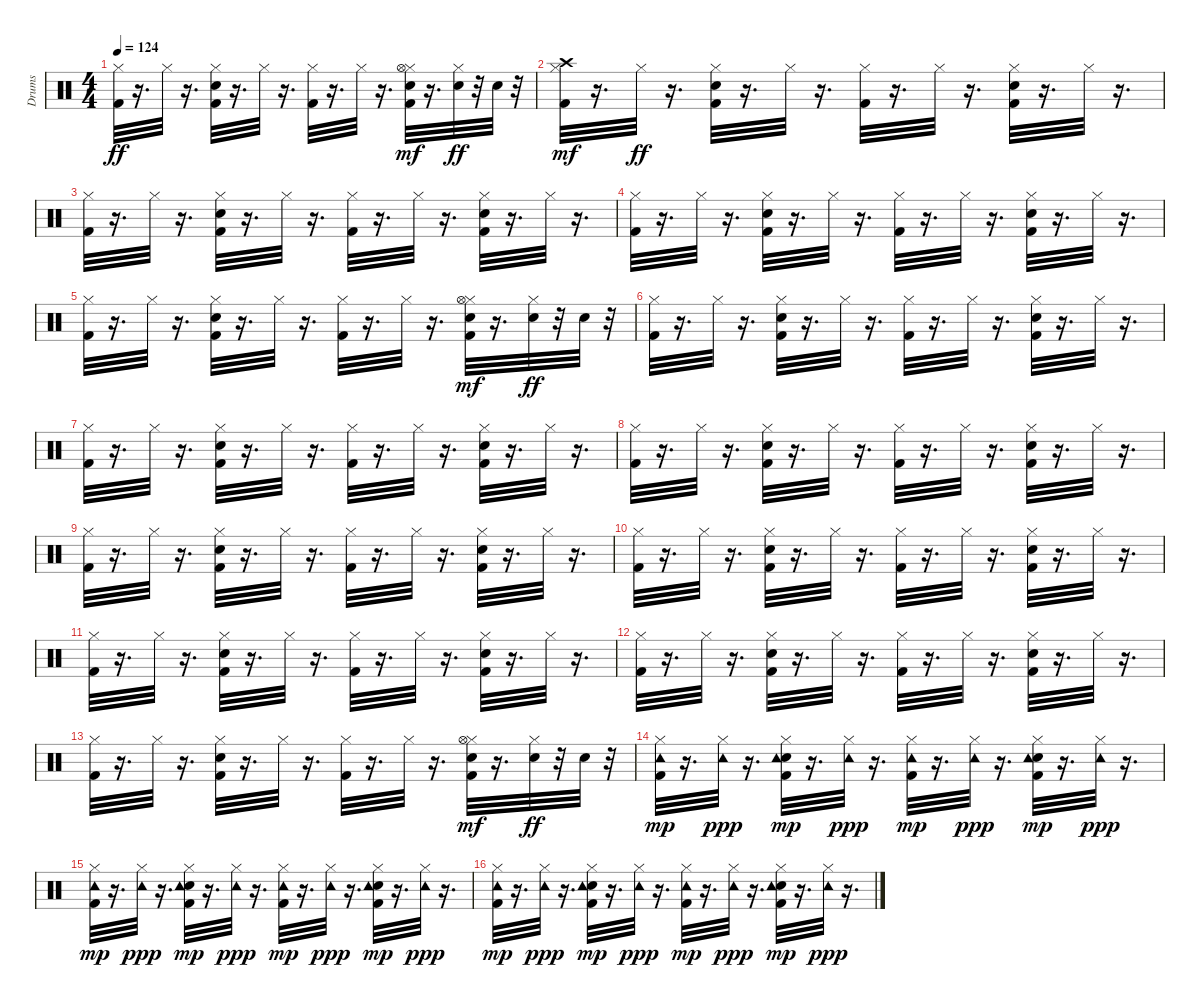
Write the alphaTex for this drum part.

\track ("Drums" "Drums") {instrument percussion}
\staff {score}
\articulation defaults
\ts (4 4)
\tempo 124
\clef neutral
\ks c
("Kick (hit) 2" "Hi-Hat (closed)").32{dy ff} r.16{d} "Hi-Hat (closed)".32 r.16{d} ("Kick (hit) 2" "Electric Snare (hit)" "Hi-Hat (closed)").32 r.16{d} "Hi-Hat (closed)".32 r.16{d} ("Kick (hit) 2" "Hi-Hat (closed)").32 r.16{d} "Hi-Hat (closed)".32 r.16{d} ("Kick (hit) 2" "Electric Snare (hit)" "Hi-Hat (closed)" "Hi-Hat (open)").32{dy mf} r.16{d} ("Electric Snare (hit)" "Hi-Hat (closed)").32{dy ff} r.32 "Electric Snare (hit)".32 r.32 |
("Kick (hit) 2" "Hi-Hat (closed)" "Crash high (hit)").32{dy mf} r.16{d} "Hi-Hat (closed)".32{dy ff} r.16{d} ("Kick (hit) 2" "Electric Snare (hit)" "Hi-Hat (closed)").32 r.16{d} "Hi-Hat (closed)".32 r.16{d} ("Kick (hit) 2" "Hi-Hat (closed)").32 r.16{d} "Hi-Hat (closed)".32 r.16{d} ("Kick (hit) 2" "Electric Snare (hit)" "Hi-Hat (closed)").32 r.16{d} "Hi-Hat (closed)".32 r.16{d} |
("Kick (hit) 2" "Hi-Hat (closed)").32 r.16{d} "Hi-Hat (closed)".32 r.16{d} ("Kick (hit) 2" "Electric Snare (hit)" "Hi-Hat (closed)").32 r.16{d} "Hi-Hat (closed)".32 r.16{d} ("Kick (hit) 2" "Hi-Hat (closed)").32 r.16{d} "Hi-Hat (closed)".32 r.16{d} ("Kick (hit) 2" "Electric Snare (hit)" "Hi-Hat (closed)").32 r.16{d} "Hi-Hat (closed)".32 r.16{d} |
("Kick (hit) 2" "Hi-Hat (closed)").32 r.16{d} "Hi-Hat (closed)".32 r.16{d} ("Kick (hit) 2" "Electric Snare (hit)" "Hi-Hat (closed)").32 r.16{d} "Hi-Hat (closed)".32 r.16{d} ("Kick (hit) 2" "Hi-Hat (closed)").32 r.16{d} "Hi-Hat (closed)".32 r.16{d} ("Kick (hit) 2" "Electric Snare (hit)" "Hi-Hat (closed)").32 r.16{d} "Hi-Hat (closed)".32 r.16{d} |
("Kick (hit) 2" "Hi-Hat (closed)").32 r.16{d} "Hi-Hat (closed)".32 r.16{d} ("Kick (hit) 2" "Electric Snare (hit)" "Hi-Hat (closed)").32 r.16{d} "Hi-Hat (closed)".32 r.16{d} ("Kick (hit) 2" "Hi-Hat (closed)").32 r.16{d} "Hi-Hat (closed)".32 r.16{d} ("Kick (hit) 2" "Electric Snare (hit)" "Hi-Hat (closed)" "Hi-Hat (open)").32{dy mf} r.16{d} ("Electric Snare (hit)" "Hi-Hat (closed)").32{dy ff} r.32 "Electric Snare (hit)".32 r.32 |
("Kick (hit) 2" "Hi-Hat (closed)").32 r.16{d} "Hi-Hat (closed)".32 r.16{d} ("Kick (hit) 2" "Electric Snare (hit)" "Hi-Hat (closed)").32 r.16{d} "Hi-Hat (closed)".32 r.16{d} ("Kick (hit) 2" "Hi-Hat (closed)").32 r.16{d} "Hi-Hat (closed)".32 r.16{d} ("Kick (hit) 2" "Electric Snare (hit)" "Hi-Hat (closed)").32 r.16{d} "Hi-Hat (closed)".32 r.16{d} |
("Kick (hit) 2" "Hi-Hat (closed)").32 r.16{d} "Hi-Hat (closed)".32 r.16{d} ("Kick (hit) 2" "Electric Snare (hit)" "Hi-Hat (closed)").32 r.16{d} "Hi-Hat (closed)".32 r.16{d} ("Kick (hit) 2" "Hi-Hat (closed)").32 r.16{d} "Hi-Hat (closed)".32 r.16{d} ("Kick (hit) 2" "Electric Snare (hit)" "Hi-Hat (closed)").32 r.16{d} "Hi-Hat (closed)".32 r.16{d} |
("Kick (hit) 2" "Hi-Hat (closed)").32 r.16{d} "Hi-Hat (closed)".32 r.16{d} ("Kick (hit) 2" "Electric Snare (hit)" "Hi-Hat (closed)").32 r.16{d} "Hi-Hat (closed)".32 r.16{d} ("Kick (hit) 2" "Hi-Hat (closed)").32 r.16{d} "Hi-Hat (closed)".32 r.16{d} ("Kick (hit) 2" "Electric Snare (hit)" "Hi-Hat (closed)").32 r.16{d} "Hi-Hat (closed)".32 r.16{d} |
("Kick (hit) 2" "Hi-Hat (closed)").32 r.16{d} "Hi-Hat (closed)".32 r.16{d} ("Kick (hit) 2" "Electric Snare (hit)" "Hi-Hat (closed)").32 r.16{d} "Hi-Hat (closed)".32 r.16{d} ("Kick (hit) 2" "Hi-Hat (closed)").32 r.16{d} "Hi-Hat (closed)".32 r.16{d} ("Kick (hit) 2" "Electric Snare (hit)" "Hi-Hat (closed)").32 r.16{d} "Hi-Hat (closed)".32 r.16{d} |
("Kick (hit) 2" "Hi-Hat (closed)").32 r.16{d} "Hi-Hat (closed)".32 r.16{d} ("Kick (hit) 2" "Electric Snare (hit)" "Hi-Hat (closed)").32 r.16{d} "Hi-Hat (closed)".32 r.16{d} ("Kick (hit) 2" "Hi-Hat (closed)").32 r.16{d} "Hi-Hat (closed)".32 r.16{d} ("Kick (hit) 2" "Electric Snare (hit)" "Hi-Hat (closed)").32 r.16{d} "Hi-Hat (closed)".32 r.16{d} |
("Kick (hit) 2" "Hi-Hat (closed)").32 r.16{d} "Hi-Hat (closed)".32 r.16{d} ("Kick (hit) 2" "Electric Snare (hit)" "Hi-Hat (closed)").32 r.16{d} "Hi-Hat (closed)".32 r.16{d} ("Kick (hit) 2" "Hi-Hat (closed)").32 r.16{d} "Hi-Hat (closed)".32 r.16{d} ("Kick (hit) 2" "Electric Snare (hit)" "Hi-Hat (closed)").32 r.16{d} "Hi-Hat (closed)".32 r.16{d} |
("Kick (hit) 2" "Hi-Hat (closed)").32 r.16{d} "Hi-Hat (closed)".32 r.16{d} ("Kick (hit) 2" "Electric Snare (hit)" "Hi-Hat (closed)").32 r.16{d} "Hi-Hat (closed)".32 r.16{d} ("Kick (hit) 2" "Hi-Hat (closed)").32 r.16{d} "Hi-Hat (closed)".32 r.16{d} ("Kick (hit) 2" "Electric Snare (hit)" "Hi-Hat (closed)").32 r.16{d} "Hi-Hat (closed)".32 r.16{d} |
("Kick (hit) 2" "Hi-Hat (closed)").32 r.16{d} "Hi-Hat (closed)".32 r.16{d} ("Kick (hit) 2" "Electric Snare (hit)" "Hi-Hat (closed)").32 r.16{d} "Hi-Hat (closed)".32 r.16{d} ("Kick (hit) 2" "Hi-Hat (closed)").32 r.16{d} "Hi-Hat (closed)".32 r.16{d} ("Kick (hit) 2" "Electric Snare (hit)" "Hi-Hat (closed)" "Hi-Hat (open)").32{dy mf} r.16{d} ("Electric Snare (hit)" "Hi-Hat (closed)").32{dy ff} r.32 "Electric Snare (hit)".32 r.32 |
("Kick (hit) 2" "Hi-Hat (closed)" "Tambourine (hit)").32{dy mp} r.16{d} ("Hi-Hat (closed)" "Tambourine (hit)").32{dy ppp} r.16{d} ("Kick (hit) 2" "Electric Snare (hit)" "Hi-Hat (closed)" "Tambourine (hit)").32{dy mp} r.16{d} ("Hi-Hat (closed)" "Tambourine (hit)").32{dy ppp} r.16{d} ("Kick (hit) 2" "Hi-Hat (closed)" "Tambourine (hit)").32{dy mp} r.16{d} ("Hi-Hat (closed)" "Tambourine (hit)").32{dy ppp} r.16{d} ("Kick (hit) 2" "Electric Snare (hit)" "Hi-Hat (closed)" "Tambourine (hit)").32{dy mp} r.16{d} ("Hi-Hat (closed)" "Tambourine (hit)").32{dy ppp} r.16{d} |
("Kick (hit) 2" "Hi-Hat (closed)" "Tambourine (hit)").32{dy mp} r.16{d} ("Hi-Hat (closed)" "Tambourine (hit)").32{dy ppp} r.16{d} ("Kick (hit) 2" "Electric Snare (hit)" "Hi-Hat (closed)" "Tambourine (hit)").32{dy mp} r.16{d} ("Hi-Hat (closed)" "Tambourine (hit)").32{dy ppp} r.16{d} ("Kick (hit) 2" "Hi-Hat (closed)" "Tambourine (hit)").32{dy mp} r.16{d} ("Hi-Hat (closed)" "Tambourine (hit)").32{dy ppp} r.16{d} ("Kick (hit) 2" "Electric Snare (hit)" "Hi-Hat (closed)" "Tambourine (hit)").32{dy mp} r.16{d} ("Hi-Hat (closed)" "Tambourine (hit)").32{dy ppp} r.16{d} |
("Kick (hit) 2" "Hi-Hat (closed)" "Tambourine (hit)").32{dy mp} r.16{d} ("Hi-Hat (closed)" "Tambourine (hit)").32{dy ppp} r.16{d} ("Kick (hit) 2" "Electric Snare (hit)" "Hi-Hat (closed)" "Tambourine (hit)").32{dy mp} r.16{d} ("Hi-Hat (closed)" "Tambourine (hit)").32{dy ppp} r.16{d} ("Kick (hit) 2" "Hi-Hat (closed)" "Tambourine (hit)").32{dy mp} r.16{d} ("Hi-Hat (closed)" "Tambourine (hit)").32{dy ppp} r.16{d} ("Kick (hit) 2" "Electric Snare (hit)" "Hi-Hat (closed)" "Tambourine (hit)").32{dy mp} r.16{d} ("Hi-Hat (closed)" "Tambourine (hit)").32{dy ppp} r.16{d}
